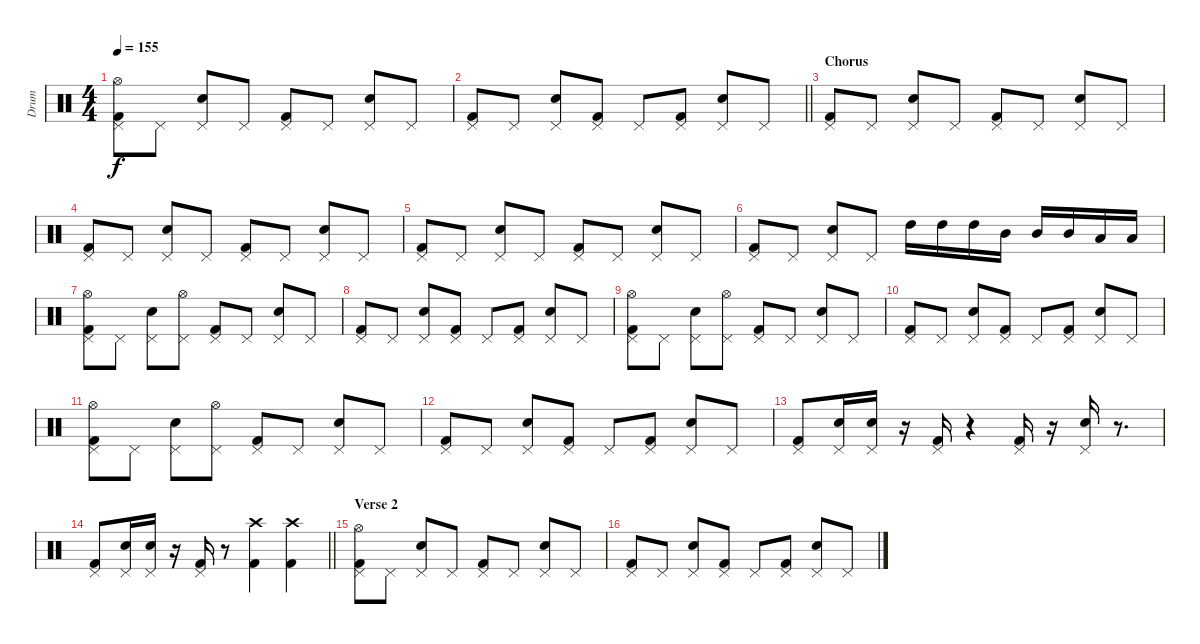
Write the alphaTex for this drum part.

\track ("Drum" "Drum") {instrument percussion}
\staff {score}
\articulation defaults
\ts (4 4)
\tempo 155
\clef neutral
\ks c
("Kick (hit) 2" "Pedal Hi-Hat (hit)" "Hi-Hat (open)").8{dy f} "Pedal Hi-Hat (hit)".8 ("Electric Snare (hit)" "Pedal Hi-Hat (hit)").8 "Pedal Hi-Hat (hit)".8 ("Kick (hit) 2" "Pedal Hi-Hat (hit)").8 "Pedal Hi-Hat (hit)".8 ("Electric Snare (hit)" "Pedal Hi-Hat (hit)").8 "Pedal Hi-Hat (hit)".8 |
\barLineRight lightlight
("Kick (hit) 2" "Pedal Hi-Hat (hit)").8 "Pedal Hi-Hat (hit)".8 ("Electric Snare (hit)" "Pedal Hi-Hat (hit)").8 ("Kick (hit) 2" "Pedal Hi-Hat (hit)").8 "Pedal Hi-Hat (hit)".8 ("Kick (hit) 2" "Pedal Hi-Hat (hit)").8 ("Electric Snare (hit)" "Pedal Hi-Hat (hit)").8 "Pedal Hi-Hat (hit)".8 |
\section ("" "Chorus")
("Kick (hit) 2" "Pedal Hi-Hat (hit)").8 "Pedal Hi-Hat (hit)".8 ("Electric Snare (hit)" "Pedal Hi-Hat (hit)").8 "Pedal Hi-Hat (hit)".8 ("Kick (hit) 2" "Pedal Hi-Hat (hit)").8 "Pedal Hi-Hat (hit)".8 ("Electric Snare (hit)" "Pedal Hi-Hat (hit)").8 "Pedal Hi-Hat (hit)".8 |
("Kick (hit) 2" "Pedal Hi-Hat (hit)").8 "Pedal Hi-Hat (hit)".8 ("Electric Snare (hit)" "Pedal Hi-Hat (hit)").8 "Pedal Hi-Hat (hit)".8 ("Kick (hit) 2" "Pedal Hi-Hat (hit)").8 "Pedal Hi-Hat (hit)".8 ("Electric Snare (hit)" "Pedal Hi-Hat (hit)").8 "Pedal Hi-Hat (hit)".8 |
("Kick (hit) 2" "Pedal Hi-Hat (hit)").8 "Pedal Hi-Hat (hit)".8 ("Electric Snare (hit)" "Pedal Hi-Hat (hit)").8 "Pedal Hi-Hat (hit)".8 ("Kick (hit) 2" "Pedal Hi-Hat (hit)").8 "Pedal Hi-Hat (hit)".8 ("Electric Snare (hit)" "Pedal Hi-Hat (hit)").8 "Pedal Hi-Hat (hit)".8 |
("Kick (hit) 2" "Pedal Hi-Hat (hit)").8 "Pedal Hi-Hat (hit)".8 ("Electric Snare (hit)" "Pedal Hi-Hat (hit)").8 "Pedal Hi-Hat (hit)".8 "High Tom (hit)".16 "High Tom (hit)".16 "High Tom (hit)".16 "Mid Tom (hit)".16 "Mid Tom (hit)".16 "Mid Tom (hit)".16 "Low Tom (hit)".16 "Low Tom (hit)".16 |
("Kick (hit) 2" "Pedal Hi-Hat (hit)" "Hi-Hat (open)").8 "Pedal Hi-Hat (hit)".8 ("Electric Snare (hit)" "Pedal Hi-Hat (hit)").8 ("Pedal Hi-Hat (hit)" "Hi-Hat (open)").8 ("Kick (hit) 2" "Pedal Hi-Hat (hit)").8 "Pedal Hi-Hat (hit)".8 ("Electric Snare (hit)" "Pedal Hi-Hat (hit)").8 "Pedal Hi-Hat (hit)".8 |
("Kick (hit) 2" "Pedal Hi-Hat (hit)").8 "Pedal Hi-Hat (hit)".8 ("Electric Snare (hit)" "Pedal Hi-Hat (hit)").8 ("Kick (hit) 2" "Pedal Hi-Hat (hit)").8 "Pedal Hi-Hat (hit)".8 ("Kick (hit) 2" "Pedal Hi-Hat (hit)").8 ("Electric Snare (hit)" "Pedal Hi-Hat (hit)").8 "Pedal Hi-Hat (hit)".8 |
("Kick (hit) 2" "Pedal Hi-Hat (hit)" "Hi-Hat (open)").8 "Pedal Hi-Hat (hit)".8 ("Electric Snare (hit)" "Pedal Hi-Hat (hit)").8 ("Pedal Hi-Hat (hit)" "Hi-Hat (open)").8 ("Kick (hit) 2" "Pedal Hi-Hat (hit)").8 "Pedal Hi-Hat (hit)".8 ("Electric Snare (hit)" "Pedal Hi-Hat (hit)").8 "Pedal Hi-Hat (hit)".8 |
("Kick (hit) 2" "Pedal Hi-Hat (hit)").8 "Pedal Hi-Hat (hit)".8 ("Electric Snare (hit)" "Pedal Hi-Hat (hit)").8 ("Kick (hit) 2" "Pedal Hi-Hat (hit)").8 "Pedal Hi-Hat (hit)".8 ("Kick (hit) 2" "Pedal Hi-Hat (hit)").8 ("Electric Snare (hit)" "Pedal Hi-Hat (hit)").8 "Pedal Hi-Hat (hit)".8 |
("Kick (hit) 2" "Pedal Hi-Hat (hit)" "Hi-Hat (open)").8 "Pedal Hi-Hat (hit)".8 ("Electric Snare (hit)" "Pedal Hi-Hat (hit)").8 ("Pedal Hi-Hat (hit)" "Hi-Hat (open)").8 ("Kick (hit) 2" "Pedal Hi-Hat (hit)").8 "Pedal Hi-Hat (hit)".8 ("Electric Snare (hit)" "Pedal Hi-Hat (hit)").8 "Pedal Hi-Hat (hit)".8 |
("Kick (hit) 2" "Pedal Hi-Hat (hit)").8 "Pedal Hi-Hat (hit)".8 ("Electric Snare (hit)" "Pedal Hi-Hat (hit)").8 ("Kick (hit) 2" "Pedal Hi-Hat (hit)").8 "Pedal Hi-Hat (hit)".8 ("Kick (hit) 2" "Pedal Hi-Hat (hit)").8 ("Electric Snare (hit)" "Pedal Hi-Hat (hit)").8 "Pedal Hi-Hat (hit)".8 |
("Kick (hit) 2" "Pedal Hi-Hat (hit)").8 ("Electric Snare (hit)" "Pedal Hi-Hat (hit)").16 ("Electric Snare (hit)" "Pedal Hi-Hat (hit)").16 r.16 ("Kick (hit) 2" "Pedal Hi-Hat (hit)").16 r.4 ("Kick (hit) 2" "Pedal Hi-Hat (hit)").16 r.16 ("Electric Snare (hit)" "Pedal Hi-Hat (hit)").16 r.8{d} |
\barLineRight lightlight
("Kick (hit) 2" "Pedal Hi-Hat (hit)").8 ("Electric Snare (hit)" "Pedal Hi-Hat (hit)").16 ("Electric Snare (hit)" "Pedal Hi-Hat (hit)").16 r.16 ("Kick (hit) 2" "Pedal Hi-Hat (hit)").16 r.8 ("Kick (hit) 2" "Crash high (hit)").4 ("Kick (hit) 2" "Crash high (hit)").4 |
\section ("" "Verse 2")
("Kick (hit) 2" "Pedal Hi-Hat (hit)" "Hi-Hat (open)").8 "Pedal Hi-Hat (hit)".8 ("Electric Snare (hit)" "Pedal Hi-Hat (hit)").8 "Pedal Hi-Hat (hit)".8 ("Kick (hit) 2" "Pedal Hi-Hat (hit)").8 "Pedal Hi-Hat (hit)".8 ("Electric Snare (hit)" "Pedal Hi-Hat (hit)").8 "Pedal Hi-Hat (hit)".8 |
("Kick (hit) 2" "Pedal Hi-Hat (hit)").8 "Pedal Hi-Hat (hit)".8 ("Electric Snare (hit)" "Pedal Hi-Hat (hit)").8 ("Kick (hit) 2" "Pedal Hi-Hat (hit)").8 "Pedal Hi-Hat (hit)".8 ("Kick (hit) 2" "Pedal Hi-Hat (hit)").8 ("Electric Snare (hit)" "Pedal Hi-Hat (hit)").8 "Pedal Hi-Hat (hit)".8
